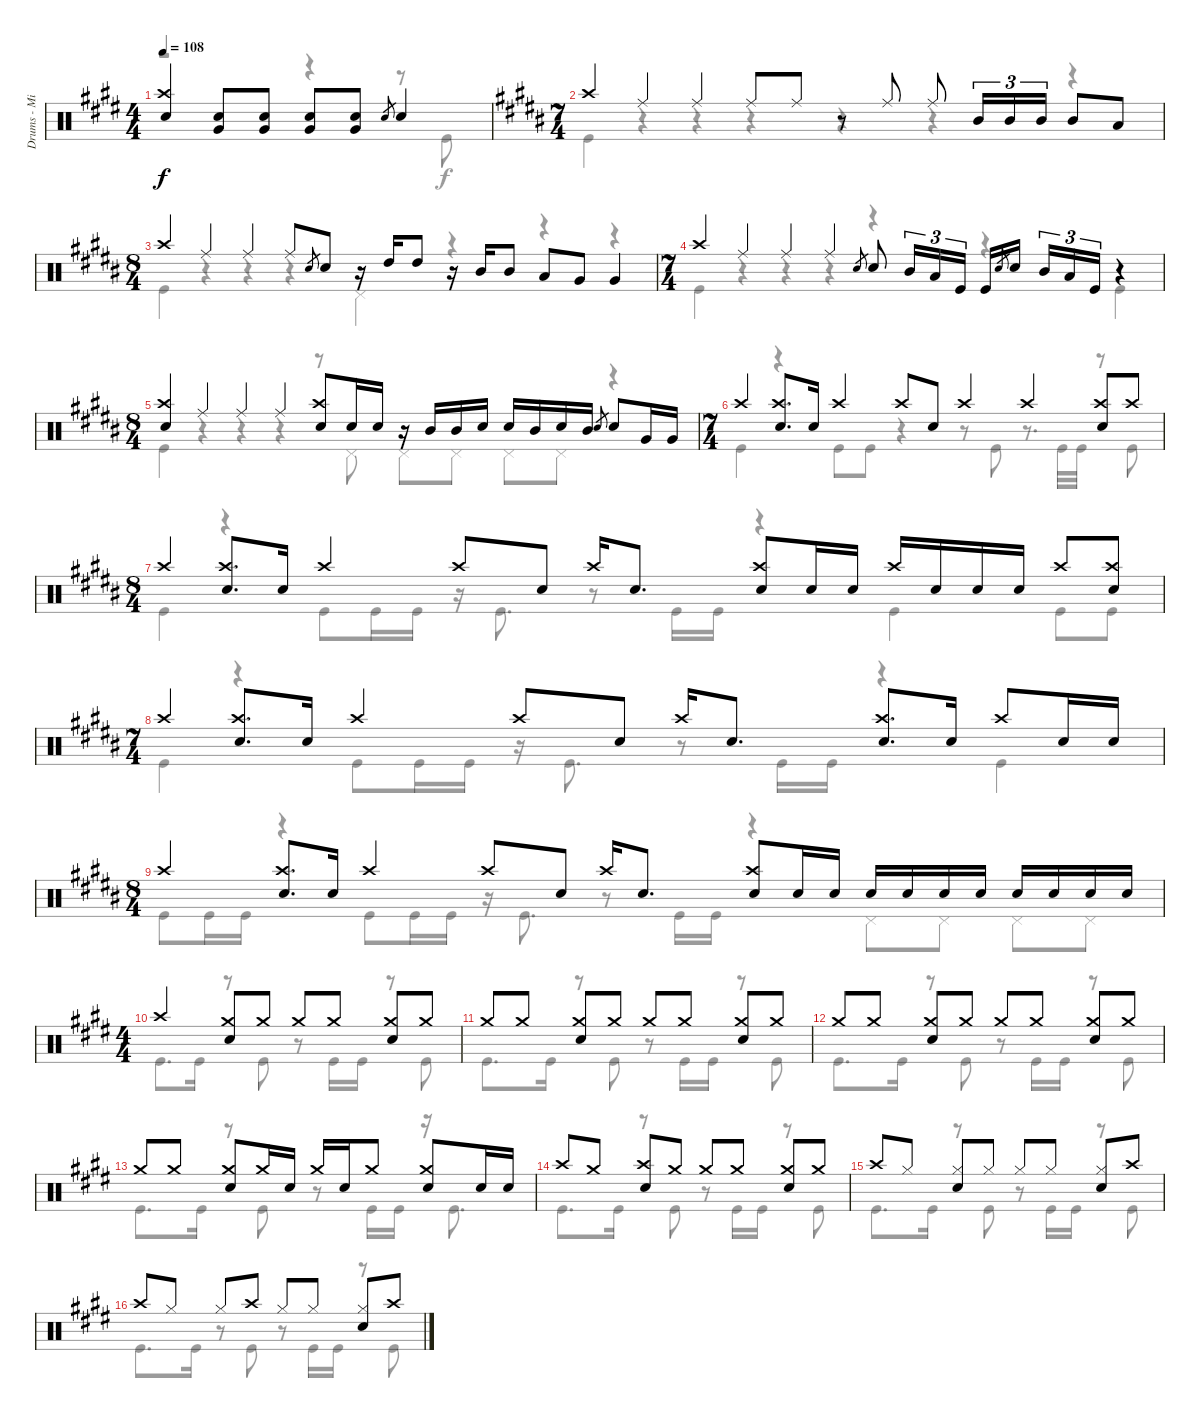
\track ("Drums - Mike Portnoy" "Drums - Mi") {instrument percussion}
\staff {score}
\articulation defaults
\voice
\ts (4 4)
\tempo 108
\clef neutral
\ks e
("Crash high (hit)" "Snare (hit) 2").4{dy f} ("Very Low Tom (hit)" "Snare (hit) 2").8 ("Very Low Tom (hit)" "Snare (hit) 2").8 ("Very Low Tom (hit)" "Snare (hit) 2").8 ("Very Low Tom (hit)" "Snare (hit) 2").8 "Snare (hit) 2".8{gr} "Snare (hit) 2".4 |
\ts (7 4)
\ks b "Crash high (hit)".4 "Ride (middle)".4 "Ride (middle)".4 "Ride (middle)".8 "Ride (middle)".8
r.8 "Ride (middle)".8 "Ride (middle)".8 "Mid Tom (hit)".16{tu (3 2)} "Mid Tom (hit)".16{tu (3 2)} "Mid Tom (hit)".16{tu (3 2)} "Mid Tom (hit)".8 "Low Tom (hit)".8 |
\ts (8 4)
"Crash high (hit)".4 "Ride (middle)".4 "Ride (middle)".4 "Ride (middle)".8 "Snare (hit) 2".8{gr} "Snare (hit) 2".8 r.16 "High Tom (hit)".16 "High Tom (hit)".8 r.16 "Mid Tom (hit)".16 "Mid Tom (hit)".8 "Low Tom (hit)".8 "Very Low Tom (hit)".8 "Very Low Tom (hit)".4 |
\ts (7 4)
"Crash high (hit)".4 "Ride (middle)".4 "Ride (middle)".4 "Ride (middle)".4 "Snare (hit) 2".8{gr} "Snare (hit) 2".8 "Mid Tom (hit)".16{tu (3 2)} "Low Tom (hit)".16{tu (3 2)} "Kick (hit)".16{tu (3 2)} "Kick (hit)".16 "Snare (hit) 2".8{gr} "Snare (hit) 2".16{beam splitsecondary} "Mid Tom (hit)".16{tu (3 2)} "Low Tom (hit)".16{tu (3 2)} "Kick (hit)".16{tu (3 2)} r.4 |
\ts (8 4)
("Crash high (hit)" "Snare (hit) 2").4 "Ride (middle)".4 "Ride (middle)".4 "Ride (middle)".4 ("Crash high (hit)" "Snare (hit) 2").8 "Snare (hit) 2".16 "Snare (hit) 2".16 r.16 "Mid Tom (hit)".16 "Mid Tom (hit)".16 "Snare (hit) 2".16 "Snare (hit) 2".16 "Mid Tom (hit)".16 "Snare (hit) 2".16 "Mid Tom (hit)".16 "Snare (hit) 2".8{gr} "Snare (hit) 2".8 "Very Low Tom (hit)".16 "Very Low Tom (hit)".16 |
\ts (7 4)
"Crash high (hit)".4 ("Crash high (hit)" "Snare (hit) 2").8{d} "Snare (hit) 2".16 "Crash high (hit)".4 "Crash high (hit)".8 "Snare (hit) 2".8 "Crash high (hit)".4 "Crash high (hit)".4 ("Crash high (hit)" "Snare (hit) 2").8 "Crash high (hit)".8 |
\ts (8 4)
"Crash high (hit)".4 ("Crash high (hit)" "Snare (hit) 2").8{d} "Snare (hit) 2".16 "Crash high (hit)".4 "Crash high (hit)".8 "Snare (hit) 2".8 "Crash high (hit)".16 "Snare (hit) 2".8{d} ("Crash high (hit)" "Snare (hit) 2").8 "Snare (hit) 2".16 "Snare (hit) 2".16 "Crash high (hit)".16 "Snare (hit) 2".16 "Snare (hit) 2".16 "Snare (hit) 2".16 "Crash high (hit)".8 ("Crash high (hit)" "Snare (hit) 2").8 |
\ts (7 4)
"Crash high (hit)".4 ("Crash high (hit)" "Snare (hit) 2").8{d} "Snare (hit) 2".16 "Crash high (hit)".4 "Crash high (hit)".8 "Snare (hit) 2".8 "Crash high (hit)".16 "Snare (hit) 2".8{d} ("Crash high (hit)" "Snare (hit) 2").8{d} "Snare (hit) 2".16 "Crash high (hit)".8 "Snare (hit) 2".16 "Snare (hit) 2".16 |
\ts (8 4)
"Crash high (hit)".4 ("Crash high (hit)" "Snare (hit) 2").8{d} "Snare (hit) 2".16 "Crash high (hit)".4 "Crash high (hit)".8 "Snare (hit) 2".8 "Crash high (hit)".16 "Snare (hit) 2".8{d} ("Crash high (hit)" "Snare (hit) 2").8 "Snare (hit) 2".16 "Snare (hit) 2".16 "Snare (hit) 2".16 "Snare (hit) 2".16 "Snare (hit) 2".16 "Snare (hit) 2".16 "Snare (hit) 2".16 "Snare (hit) 2".16 "Snare (hit) 2".16 "Snare (hit) 2".16 |
\ts (4 4)
\ks e "Crash high (hit)".4
("Crash medium (hit)" "Snare (hit) 2").8 "Crash medium (hit)".8 "Crash medium (hit)".8 "Crash medium (hit)".8 ("Crash medium (hit)" "Snare (hit) 2").8 "Crash medium (hit)".8 |
"Crash medium (hit)".8 "Crash medium (hit)".8 ("Crash medium (hit)" "Snare (hit) 2").8 "Crash medium (hit)".8 "Crash medium (hit)".8 "Crash medium (hit)".8 ("Crash medium (hit)" "Snare (hit) 2").8 "Crash medium (hit)".8 |
"Crash medium (hit)".8 "Crash medium (hit)".8 ("Crash medium (hit)" "Snare (hit) 2").8 "Crash medium (hit)".8 "Crash medium (hit)".8 "Crash medium (hit)".8 ("Crash medium (hit)" "Snare (hit) 2").8 "Crash medium (hit)".8 |
"Crash medium (hit)".8 "Crash medium (hit)".8 ("Crash medium (hit)" "Snare (hit) 2").8 "Crash medium (hit)".16 "Snare (hit) 2".16 "Crash medium (hit)".16 "Snare (hit) 2".16 "Crash medium (hit)".8 ("Crash medium (hit)" "Snare (hit) 2").8 "Snare (hit) 2".16 "Snare (hit) 2".16 |
"Crash high (hit)".8 "Crash medium (hit)".8 ("Crash high (hit)" "Snare (hit) 2").8 "Crash medium (hit)".8 "Crash medium (hit)".8 "Crash medium (hit)".8 ("Crash medium (hit)" "Snare (hit) 2").8 "Crash medium (hit)".8 |
"Crash high (hit)".8 "Hi-Hat (closed)".8 ("Hi-Hat (closed)" "Snare (hit) 2").8 "Hi-Hat (closed)".8 "Hi-Hat (closed)".8 "Hi-Hat (closed)".8 ("Hi-Hat (closed)" "Snare (hit) 2").8 "Crash high (hit)".8 |
"Crash high (hit)".8 "Hi-Hat (closed)".8 "Hi-Hat (closed)".8 "Crash high (hit)".8 "Hi-Hat (closed)".8 "Hi-Hat (closed)".8 ("Hi-Hat (closed)" "Snare (hit) 2").8 "Crash high (hit)".8
\voice
\clef neutral
\ottava regular
\simile none
\ks e
r.2{dy f} r.4 r.8 "Kick (hit)".8 |
\ks b "Kick (hit)".4
r.4 r.4 r.4 r.4 r.4 r.4 |
"Kick (hit)".4 r.4 r.4 r.4 "Pedal Hi-Hat (hit)".4 r.4 r.4 r.4 |
"Kick (hit)".4 r.4 r.4 r.4 r.4 r.4 "Kick (hit)".4 |
"Kick (hit)".4 r.4 r.4 r.4 r.8 "Pedal Hi-Hat (hit)".8 "Pedal Hi-Hat (hit)".8 "Pedal Hi-Hat (hit)".8 "Pedal Hi-Hat (hit)".8 "Pedal Hi-Hat (hit)".8 r.4 |
"Kick (hit)".4 r.4 "Kick (hit)".8 "Kick (hit)".8 r.4 r.8 "Kick (hit)".8 r.8{d} "Kick (hit)".32 "Kick (hit)".32 r.8 "Kick (hit)".8 |
"Kick (hit)".4 r.4 "Kick (hit)".8 "Kick (hit)".16 "Kick (hit)".16 r.16 "Kick (hit)".8{d} r.8 "Kick (hit)".16 "Kick (hit)".16 r.4 "Kick (hit)".4 "Kick (hit)".8 "Kick (hit)".8 |
"Kick (hit)".4 r.4 "Kick (hit)".8 "Kick (hit)".16 "Kick (hit)".16 r.16 "Kick (hit)".8{d} r.8 "Kick (hit)".16 "Kick (hit)".16 r.4 "Kick (hit)".4 |
"Kick (hit)".8 "Kick (hit)".16 "Kick (hit)".16 r.4 "Kick (hit)".8 "Kick (hit)".16 "Kick (hit)".16 r.16 "Kick (hit)".8{d} r.8 "Kick (hit)".16 "Kick (hit)".16 r.4 "Pedal Hi-Hat (hit)".8 "Pedal Hi-Hat (hit)".8 "Pedal Hi-Hat (hit)".8 "Pedal Hi-Hat (hit)".8 |
\ks e "Kick (hit)".8{d} "Kick (hit)".16
r.8 "Kick (hit)".8 r.8 "Kick (hit)".16 "Kick (hit)".16 r.8 "Kick (hit)".8 |
"Kick (hit)".8{d} "Kick (hit)".16 r.8 "Kick (hit)".8 r.8 "Kick (hit)".16 "Kick (hit)".16 r.8 "Kick (hit)".8 |
"Kick (hit)".8{d} "Kick (hit)".16 r.8 "Kick (hit)".8 r.8 "Kick (hit)".16 "Kick (hit)".16 r.8 "Kick (hit)".8 |
"Kick (hit)".8{d} "Kick (hit)".16 r.8 "Kick (hit)".8 r.8 "Kick (hit)".16 "Kick (hit)".16 r.16 "Kick (hit)".8{d} |
"Kick (hit)".8{d} "Kick (hit)".16 r.8 "Kick (hit)".8 r.8 "Kick (hit)".16 "Kick (hit)".16 r.8 "Kick (hit)".8 |
"Kick (hit)".8{d} "Kick (hit)".16 r.8 "Kick (hit)".8 r.8 "Kick (hit)".16 "Kick (hit)".16 r.8 "Kick (hit)".8 |
"Kick (hit)".8{d} "Kick (hit)".16 r.8 "Kick (hit)".8 r.8 "Kick (hit)".16 "Kick (hit)".16 r.8 "Kick (hit)".8
